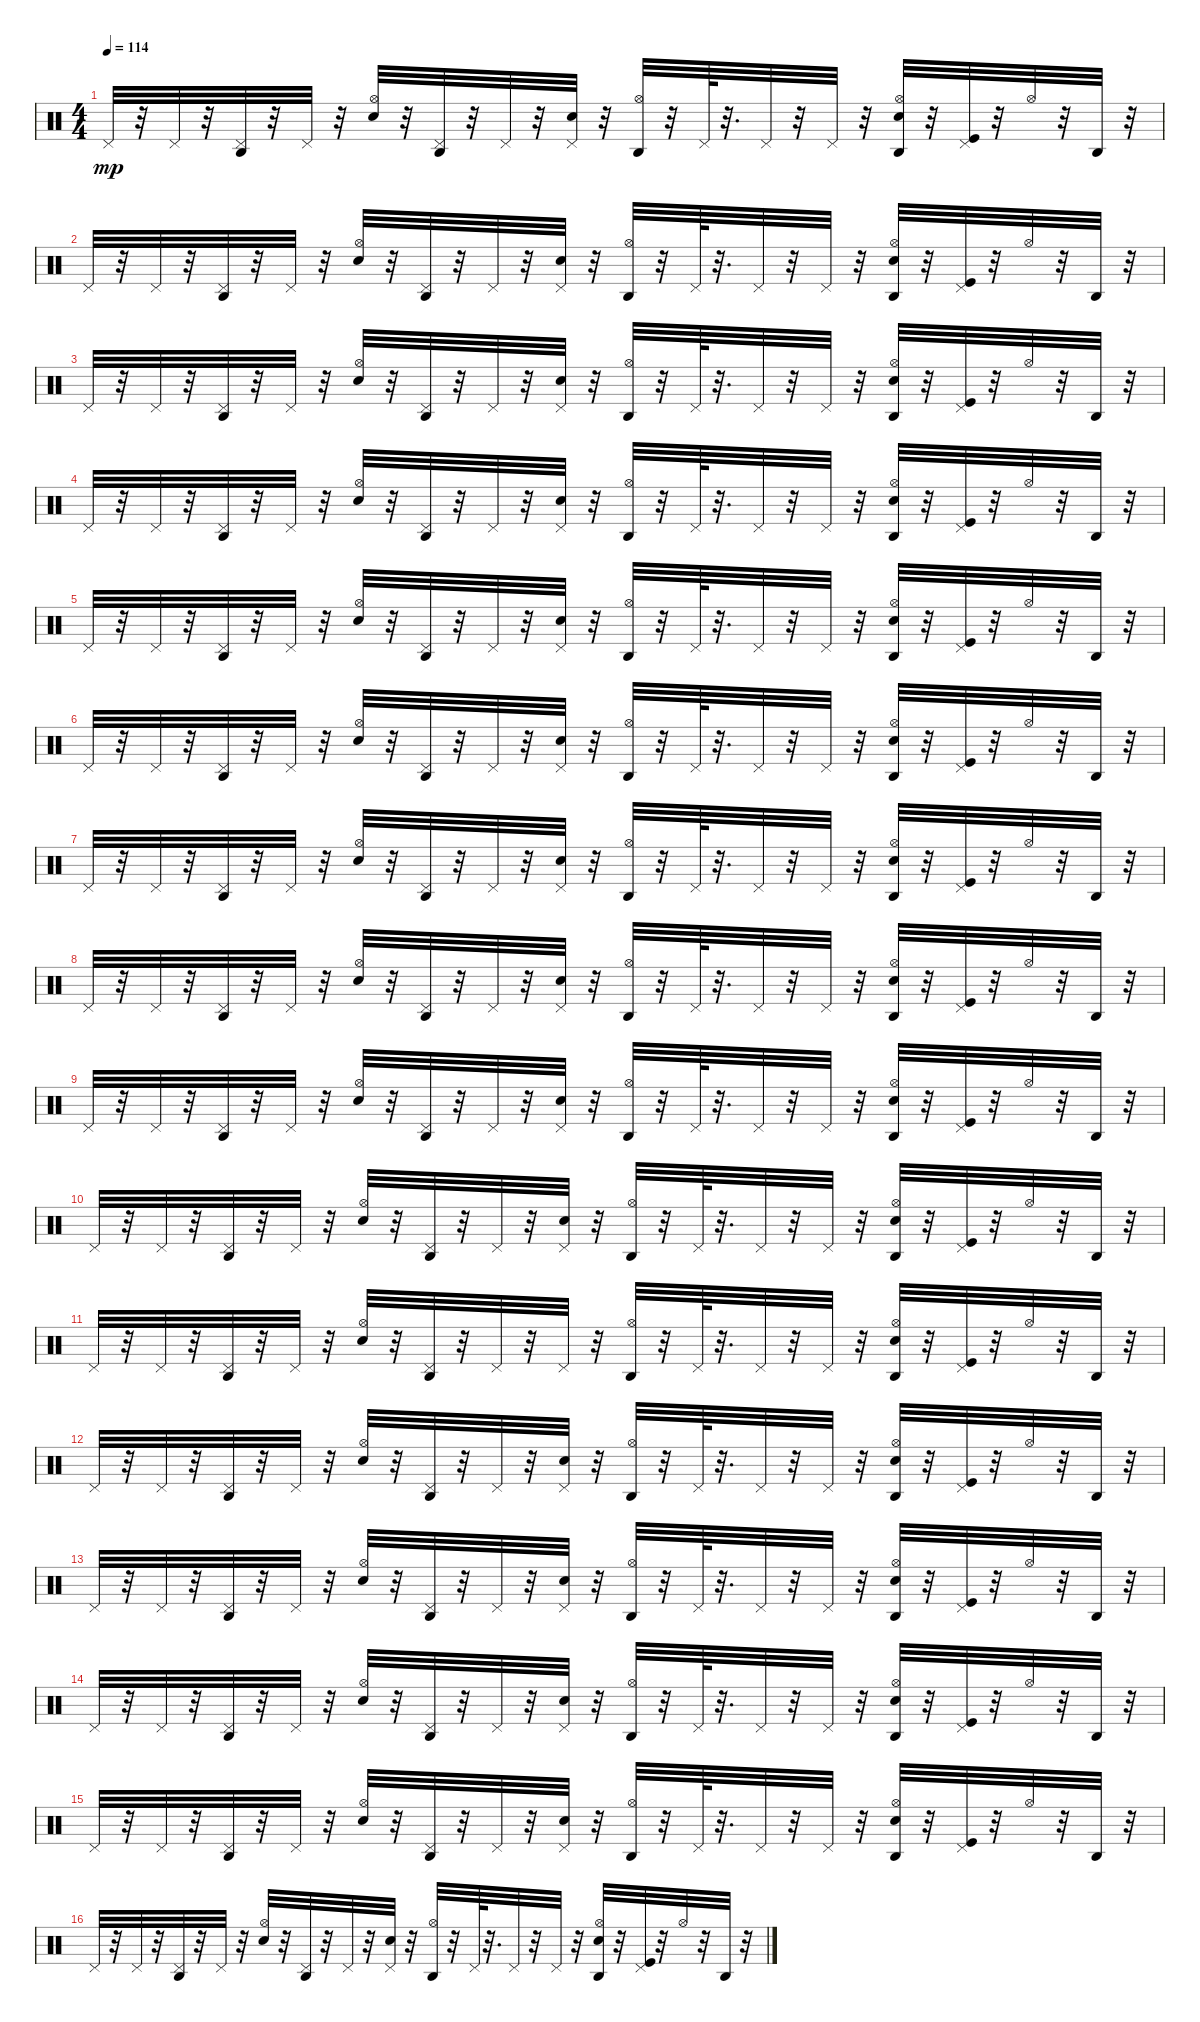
\track "" {instrument percussion}
\staff {score}
\articulation defaults
\ts (4 4)
\tempo 114
\clef neutral
\ks c "Pedal Hi-Hat (hit)".32{dy mp}
r.32 "Pedal Hi-Hat (hit)".32 r.32 ("Agogo high (hit)" "Pedal Hi-Hat (hit)").32 r.32 "Pedal Hi-Hat (hit)".32 r.32 ("Hi-Hat (open)" "Electric Snare (hit)").32 r.32 ("Pedal Hi-Hat (hit)" "Agogo high (hit)").32 r.32 "Pedal Hi-Hat (hit)".32 r.32 ("Pedal Hi-Hat (hit)" "Snare (hit) 2").32 r.32 ("Hi-Hat (open)" "Agogo high (hit)").32 r.32 "Pedal Hi-Hat (hit)".64 r.32{d} "Pedal Hi-Hat (hit)".32 r.32 "Pedal Hi-Hat (hit)".32 r.32 ("Hi-Hat (open)" "Agogo high (hit)" "Electric Snare (hit)").32 r.32 ("Pedal Hi-Hat (hit)" "Kick (hit)").32 r.32 "Hi-Hat (open)".32 r.32 "Agogo high (hit)".32 r.32 |
"Pedal Hi-Hat (hit)".32 r.32 "Pedal Hi-Hat (hit)".32 r.32 ("Agogo high (hit)" "Pedal Hi-Hat (hit)").32 r.32 "Pedal Hi-Hat (hit)".32 r.32 ("Hi-Hat (open)" "Electric Snare (hit)").32 r.32 ("Pedal Hi-Hat (hit)" "Agogo high (hit)").32 r.32 "Pedal Hi-Hat (hit)".32 r.32 ("Pedal Hi-Hat (hit)" "Snare (hit) 2").32 r.32 ("Hi-Hat (open)" "Agogo high (hit)").32 r.32 "Pedal Hi-Hat (hit)".64 r.32{d} "Pedal Hi-Hat (hit)".32 r.32 "Pedal Hi-Hat (hit)".32 r.32 ("Hi-Hat (open)" "Agogo high (hit)" "Electric Snare (hit)").32 r.32 ("Pedal Hi-Hat (hit)" "Kick (hit)").32 r.32 "Hi-Hat (open)".32 r.32 "Agogo high (hit)".32 r.32 |
"Pedal Hi-Hat (hit)".32 r.32 "Pedal Hi-Hat (hit)".32 r.32 ("Agogo high (hit)" "Pedal Hi-Hat (hit)").32 r.32 "Pedal Hi-Hat (hit)".32 r.32 ("Hi-Hat (open)" "Electric Snare (hit)").32 r.32 ("Pedal Hi-Hat (hit)" "Agogo high (hit)").32 r.32 "Pedal Hi-Hat (hit)".32 r.32 ("Pedal Hi-Hat (hit)" "Snare (hit) 2").32 r.32 ("Hi-Hat (open)" "Agogo high (hit)").32 r.32 "Pedal Hi-Hat (hit)".64 r.32{d} "Pedal Hi-Hat (hit)".32 r.32 "Pedal Hi-Hat (hit)".32 r.32 ("Hi-Hat (open)" "Agogo high (hit)" "Electric Snare (hit)").32 r.32 ("Pedal Hi-Hat (hit)" "Kick (hit)").32 r.32 "Hi-Hat (open)".32 r.32 "Agogo high (hit)".32 r.32 |
"Pedal Hi-Hat (hit)".32 r.32 "Pedal Hi-Hat (hit)".32 r.32 ("Agogo high (hit)" "Pedal Hi-Hat (hit)").32 r.32 "Pedal Hi-Hat (hit)".32 r.32 ("Hi-Hat (open)" "Electric Snare (hit)").32 r.32 ("Pedal Hi-Hat (hit)" "Agogo high (hit)").32 r.32 "Pedal Hi-Hat (hit)".32 r.32 ("Pedal Hi-Hat (hit)" "Snare (hit) 2").32 r.32 ("Hi-Hat (open)" "Agogo high (hit)").32 r.32 "Pedal Hi-Hat (hit)".64 r.32{d} "Pedal Hi-Hat (hit)".32 r.32 "Pedal Hi-Hat (hit)".32 r.32 ("Hi-Hat (open)" "Agogo high (hit)" "Electric Snare (hit)").32 r.32 ("Pedal Hi-Hat (hit)" "Kick (hit)").32 r.32 "Hi-Hat (open)".32 r.32 "Agogo high (hit)".32 r.32 |
"Pedal Hi-Hat (hit)".32 r.32 "Pedal Hi-Hat (hit)".32 r.32 ("Agogo high (hit)" "Pedal Hi-Hat (hit)").32 r.32 "Pedal Hi-Hat (hit)".32 r.32 ("Hi-Hat (open)" "Electric Snare (hit)").32 r.32 ("Pedal Hi-Hat (hit)" "Agogo high (hit)").32 r.32 "Pedal Hi-Hat (hit)".32 r.32 ("Pedal Hi-Hat (hit)" "Snare (hit) 2").32 r.32 ("Hi-Hat (open)" "Agogo high (hit)").32 r.32 "Pedal Hi-Hat (hit)".64 r.32{d} "Pedal Hi-Hat (hit)".32 r.32 "Pedal Hi-Hat (hit)".32 r.32 ("Hi-Hat (open)" "Agogo high (hit)" "Electric Snare (hit)").32 r.32 ("Pedal Hi-Hat (hit)" "Kick (hit)").32 r.32 "Hi-Hat (open)".32 r.32 "Agogo high (hit)".32 r.32 |
"Pedal Hi-Hat (hit)".32 r.32 "Pedal Hi-Hat (hit)".32 r.32 ("Agogo high (hit)" "Pedal Hi-Hat (hit)").32 r.32 "Pedal Hi-Hat (hit)".32 r.32 ("Hi-Hat (open)" "Electric Snare (hit)").32 r.32 ("Pedal Hi-Hat (hit)" "Agogo high (hit)").32 r.32 "Pedal Hi-Hat (hit)".32 r.32 ("Pedal Hi-Hat (hit)" "Snare (hit) 2").32 r.32 ("Hi-Hat (open)" "Agogo high (hit)").32 r.32 "Pedal Hi-Hat (hit)".64 r.32{d} "Pedal Hi-Hat (hit)".32 r.32 "Pedal Hi-Hat (hit)".32 r.32 ("Hi-Hat (open)" "Agogo high (hit)" "Electric Snare (hit)").32 r.32 ("Pedal Hi-Hat (hit)" "Kick (hit)").32 r.32 "Hi-Hat (open)".32 r.32 "Agogo high (hit)".32 r.32 |
"Pedal Hi-Hat (hit)".32 r.32 "Pedal Hi-Hat (hit)".32 r.32 ("Agogo high (hit)" "Pedal Hi-Hat (hit)").32 r.32 "Pedal Hi-Hat (hit)".32 r.32 ("Hi-Hat (open)" "Electric Snare (hit)").32 r.32 ("Pedal Hi-Hat (hit)" "Agogo high (hit)").32 r.32 "Pedal Hi-Hat (hit)".32 r.32 ("Pedal Hi-Hat (hit)" "Snare (hit) 2").32 r.32 ("Hi-Hat (open)" "Agogo high (hit)").32 r.32 "Pedal Hi-Hat (hit)".64 r.32{d} "Pedal Hi-Hat (hit)".32 r.32 "Pedal Hi-Hat (hit)".32 r.32 ("Hi-Hat (open)" "Agogo high (hit)" "Electric Snare (hit)").32 r.32 ("Pedal Hi-Hat (hit)" "Kick (hit)").32 r.32 "Hi-Hat (open)".32 r.32 "Agogo high (hit)".32 r.32 |
"Pedal Hi-Hat (hit)".32 r.32 "Pedal Hi-Hat (hit)".32 r.32 ("Agogo high (hit)" "Pedal Hi-Hat (hit)").32 r.32 "Pedal Hi-Hat (hit)".32 r.32 ("Hi-Hat (open)" "Electric Snare (hit)").32 r.32 ("Pedal Hi-Hat (hit)" "Agogo high (hit)").32 r.32 "Pedal Hi-Hat (hit)".32 r.32 ("Pedal Hi-Hat (hit)" "Snare (hit) 2").32 r.32 ("Hi-Hat (open)" "Agogo high (hit)").32 r.32 "Pedal Hi-Hat (hit)".64 r.32{d} "Pedal Hi-Hat (hit)".32 r.32 "Pedal Hi-Hat (hit)".32 r.32 ("Hi-Hat (open)" "Agogo high (hit)" "Electric Snare (hit)").32 r.32 ("Pedal Hi-Hat (hit)" "Kick (hit)").32 r.32 "Hi-Hat (open)".32 r.32 "Agogo high (hit)".32 r.32 |
"Pedal Hi-Hat (hit)".32 r.32 "Pedal Hi-Hat (hit)".32 r.32 ("Agogo high (hit)" "Pedal Hi-Hat (hit)").32 r.32 "Pedal Hi-Hat (hit)".32 r.32 ("Hi-Hat (open)" "Electric Snare (hit)").32 r.32 ("Pedal Hi-Hat (hit)" "Agogo high (hit)").32 r.32 "Pedal Hi-Hat (hit)".32 r.32 ("Pedal Hi-Hat (hit)" "Snare (hit) 2").32 r.32 ("Hi-Hat (open)" "Agogo high (hit)").32 r.32 "Pedal Hi-Hat (hit)".64 r.32{d} "Pedal Hi-Hat (hit)".32 r.32 "Pedal Hi-Hat (hit)".32 r.32 ("Hi-Hat (open)" "Agogo high (hit)" "Electric Snare (hit)").32 r.32 ("Pedal Hi-Hat (hit)" "Kick (hit)").32 r.32 "Hi-Hat (open)".32 r.32 "Agogo high (hit)".32 r.32 |
"Pedal Hi-Hat (hit)".32 r.32 "Pedal Hi-Hat (hit)".32 r.32 ("Agogo high (hit)" "Pedal Hi-Hat (hit)").32 r.32 "Pedal Hi-Hat (hit)".32 r.32 ("Hi-Hat (open)" "Electric Snare (hit)").32 r.32 ("Pedal Hi-Hat (hit)" "Agogo high (hit)").32 r.32 "Pedal Hi-Hat (hit)".32 r.32 ("Pedal Hi-Hat (hit)" "Snare (hit) 2").32 r.32 ("Hi-Hat (open)" "Agogo high (hit)").32 r.32 "Pedal Hi-Hat (hit)".64 r.32{d} "Pedal Hi-Hat (hit)".32 r.32 "Pedal Hi-Hat (hit)".32 r.32 ("Hi-Hat (open)" "Agogo high (hit)" "Electric Snare (hit)").32 r.32 ("Pedal Hi-Hat (hit)" "Kick (hit)").32 r.32 "Hi-Hat (open)".32 r.32 "Agogo high (hit)".32 r.32 |
"Pedal Hi-Hat (hit)".32 r.32 "Pedal Hi-Hat (hit)".32 r.32 ("Agogo high (hit)" "Pedal Hi-Hat (hit)").32 r.32 "Pedal Hi-Hat (hit)".32 r.32 ("Hi-Hat (open)" "Electric Snare (hit)").32 r.32 ("Pedal Hi-Hat (hit)" "Agogo high (hit)").32 r.32 "Pedal Hi-Hat (hit)".32 r.32 "Pedal Hi-Hat (hit)".32 r.32 ("Agogo high (hit)" "Hi-Hat (open)").32 r.32 "Pedal Hi-Hat (hit)".64 r.32{d} "Pedal Hi-Hat (hit)".32 r.32 "Pedal Hi-Hat (hit)".32 r.32 ("Hi-Hat (open)" "Electric Snare (hit)" "Agogo high (hit)").32 r.32 ("Pedal Hi-Hat (hit)" "Kick (hit)").32 r.32 "Hi-Hat (open)".32 r.32 "Agogo high (hit)".32 r.32 |
"Pedal Hi-Hat (hit)".32 r.32 "Pedal Hi-Hat (hit)".32 r.32 ("Agogo high (hit)" "Pedal Hi-Hat (hit)").32 r.32 "Pedal Hi-Hat (hit)".32 r.32 ("Hi-Hat (open)" "Electric Snare (hit)").32 r.32 ("Pedal Hi-Hat (hit)" "Agogo high (hit)").32 r.32 "Pedal Hi-Hat (hit)".32 r.32 ("Pedal Hi-Hat (hit)" "Snare (hit) 2").32 r.32 ("Hi-Hat (open)" "Agogo high (hit)").32 r.32 "Pedal Hi-Hat (hit)".64 r.32{d} "Pedal Hi-Hat (hit)".32 r.32 "Pedal Hi-Hat (hit)".32 r.32 ("Hi-Hat (open)" "Agogo high (hit)" "Electric Snare (hit)").32 r.32 ("Pedal Hi-Hat (hit)" "Kick (hit)").32 r.32 "Hi-Hat (open)".32 r.32 "Agogo high (hit)".32 r.32 |
"Pedal Hi-Hat (hit)".32 r.32 "Pedal Hi-Hat (hit)".32 r.32 ("Agogo high (hit)" "Pedal Hi-Hat (hit)").32 r.32 "Pedal Hi-Hat (hit)".32 r.32 ("Hi-Hat (open)" "Electric Snare (hit)").32 r.32 ("Pedal Hi-Hat (hit)" "Agogo high (hit)").32 r.32 "Pedal Hi-Hat (hit)".32 r.32 ("Pedal Hi-Hat (hit)" "Snare (hit) 2").32 r.32 ("Hi-Hat (open)" "Agogo high (hit)").32 r.32 "Pedal Hi-Hat (hit)".64 r.32{d} "Pedal Hi-Hat (hit)".32 r.32 "Pedal Hi-Hat (hit)".32 r.32 ("Hi-Hat (open)" "Agogo high (hit)" "Electric Snare (hit)").32 r.32 ("Pedal Hi-Hat (hit)" "Kick (hit)").32 r.32 "Hi-Hat (open)".32 r.32 "Agogo high (hit)".32 r.32 |
"Pedal Hi-Hat (hit)".32 r.32 "Pedal Hi-Hat (hit)".32 r.32 ("Agogo high (hit)" "Pedal Hi-Hat (hit)").32 r.32 "Pedal Hi-Hat (hit)".32 r.32 ("Hi-Hat (open)" "Electric Snare (hit)").32 r.32 ("Pedal Hi-Hat (hit)" "Agogo high (hit)").32 r.32 "Pedal Hi-Hat (hit)".32 r.32 ("Pedal Hi-Hat (hit)" "Snare (hit) 2").32 r.32 ("Hi-Hat (open)" "Agogo high (hit)").32 r.32 "Pedal Hi-Hat (hit)".64 r.32{d} "Pedal Hi-Hat (hit)".32 r.32 "Pedal Hi-Hat (hit)".32 r.32 ("Hi-Hat (open)" "Agogo high (hit)" "Electric Snare (hit)").32 r.32 ("Pedal Hi-Hat (hit)" "Kick (hit)").32 r.32 "Hi-Hat (open)".32 r.32 "Agogo high (hit)".32 r.32 |
"Pedal Hi-Hat (hit)".32 r.32 "Pedal Hi-Hat (hit)".32 r.32 ("Agogo high (hit)" "Pedal Hi-Hat (hit)").32 r.32 "Pedal Hi-Hat (hit)".32 r.32 ("Hi-Hat (open)" "Electric Snare (hit)").32 r.32 ("Pedal Hi-Hat (hit)" "Agogo high (hit)").32 r.32 "Pedal Hi-Hat (hit)".32 r.32 ("Pedal Hi-Hat (hit)" "Snare (hit) 2").32 r.32 ("Hi-Hat (open)" "Agogo high (hit)").32 r.32 "Pedal Hi-Hat (hit)".64 r.32{d} "Pedal Hi-Hat (hit)".32 r.32 "Pedal Hi-Hat (hit)".32 r.32 ("Hi-Hat (open)" "Agogo high (hit)" "Electric Snare (hit)").32 r.32 ("Pedal Hi-Hat (hit)" "Kick (hit)").32 r.32 "Hi-Hat (open)".32 r.32 "Agogo high (hit)".32 r.32 |
"Pedal Hi-Hat (hit)".32 r.32 "Pedal Hi-Hat (hit)".32 r.32 ("Agogo high (hit)" "Pedal Hi-Hat (hit)").32 r.32 "Pedal Hi-Hat (hit)".32 r.32 ("Hi-Hat (open)" "Electric Snare (hit)").32 r.32 ("Pedal Hi-Hat (hit)" "Agogo high (hit)").32 r.32 "Pedal Hi-Hat (hit)".32 r.32 ("Pedal Hi-Hat (hit)" "Snare (hit) 2").32 r.32 ("Hi-Hat (open)" "Agogo high (hit)").32 r.32 "Pedal Hi-Hat (hit)".64 r.32{d} "Pedal Hi-Hat (hit)".32 r.32 "Pedal Hi-Hat (hit)".32 r.32 ("Hi-Hat (open)" "Agogo high (hit)" "Electric Snare (hit)").32 r.32 ("Pedal Hi-Hat (hit)" "Kick (hit)").32 r.32 "Hi-Hat (open)".32 r.32 "Agogo high (hit)".32 r.32
